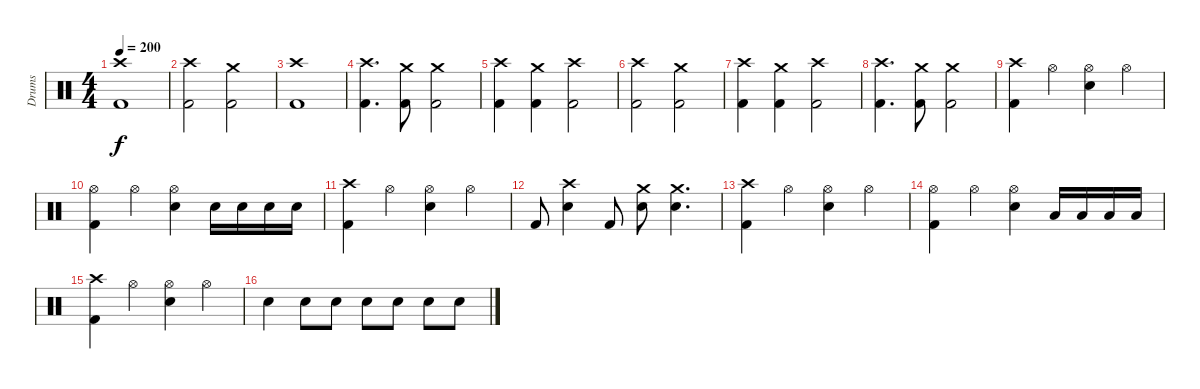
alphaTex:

\track ("Drums" "Drums") {instrument percussion}
\staff {score}
\articulation defaults
\ts (4 4)
\tempo 200
\clef neutral
\ks c
("Crash high (hit)" "Kick (hit) 2").1{dy f} |
("Crash high (hit)" "Kick (hit) 2").2 ("Crash medium (hit)" "Kick (hit) 2").2 |
("Crash high (hit)" "Kick (hit) 2").1 |
("Crash high (hit)" "Kick (hit) 2").4{d} ("Crash medium (hit)" "Kick (hit) 2").8 ("Crash medium (hit)" "Kick (hit) 2").2 |
("Crash high (hit)" "Kick (hit) 2").4 ("Crash medium (hit)" "Kick (hit) 2").4 ("Crash high (hit)" "Kick (hit) 2").2 |
("Crash high (hit)" "Kick (hit) 2").2 ("Crash medium (hit)" "Kick (hit) 2").2 |
("Crash high (hit)" "Kick (hit) 2").4 ("Crash medium (hit)" "Kick (hit) 2").4 ("Crash high (hit)" "Kick (hit) 2").2 |
("Crash high (hit)" "Kick (hit) 2").4{d} ("Crash medium (hit)" "Kick (hit) 2").8 ("Crash medium (hit)" "Kick (hit) 2").2 |
("Crash high (hit)" "Kick (hit) 2").4 "Hi-Hat (open)".4 ("Hi-Hat (open)" "Electric Snare (hit)").4 "Hi-Hat (open)".4 |
("Hi-Hat (open)" "Kick (hit) 2").4 "Hi-Hat (open)".4 ("Hi-Hat (open)" "Electric Snare (hit)").4 "Electric Snare (hit)".16 "Electric Snare (hit)".16 "Electric Snare (hit)".16 "Electric Snare (hit)".16 |
("Crash high (hit)" "Kick (hit) 2").4 "Hi-Hat (open)".4 ("Hi-Hat (open)" "Electric Snare (hit)").4 "Hi-Hat (open)".4 |
"Kick (hit) 2".8 ("Crash high (hit)" "Electric Snare (hit)").4 "Kick (hit) 2".8 ("Crash medium (hit)" "Electric Snare (hit)").8 ("Crash medium (hit)" "Electric Snare (hit)").4{d} |
("Crash high (hit)" "Kick (hit) 2").4 "Hi-Hat (open)".4 ("Hi-Hat (open)" "Electric Snare (hit)").4 "Hi-Hat (open)".4 |
("Hi-Hat (open)" "Kick (hit) 2").4 "Hi-Hat (open)".4 ("Hi-Hat (open)" "Electric Snare (hit)").4 "Low Tom (hit)".16 "Low Tom (hit)".16 "Low Tom (hit)".16 "Low Tom (hit)".16 |
("Crash high (hit)" "Kick (hit) 2").4 "Hi-Hat (open)".4 ("Hi-Hat (open)" "Electric Snare (hit)").4 "Hi-Hat (open)".4 |
"Electric Snare (hit)".4 "Electric Snare (hit)".8 "Electric Snare (hit)".8 "Electric Snare (hit)".8 "Electric Snare (hit)".8 "Electric Snare (hit)".8 "Electric Snare (hit)".8
